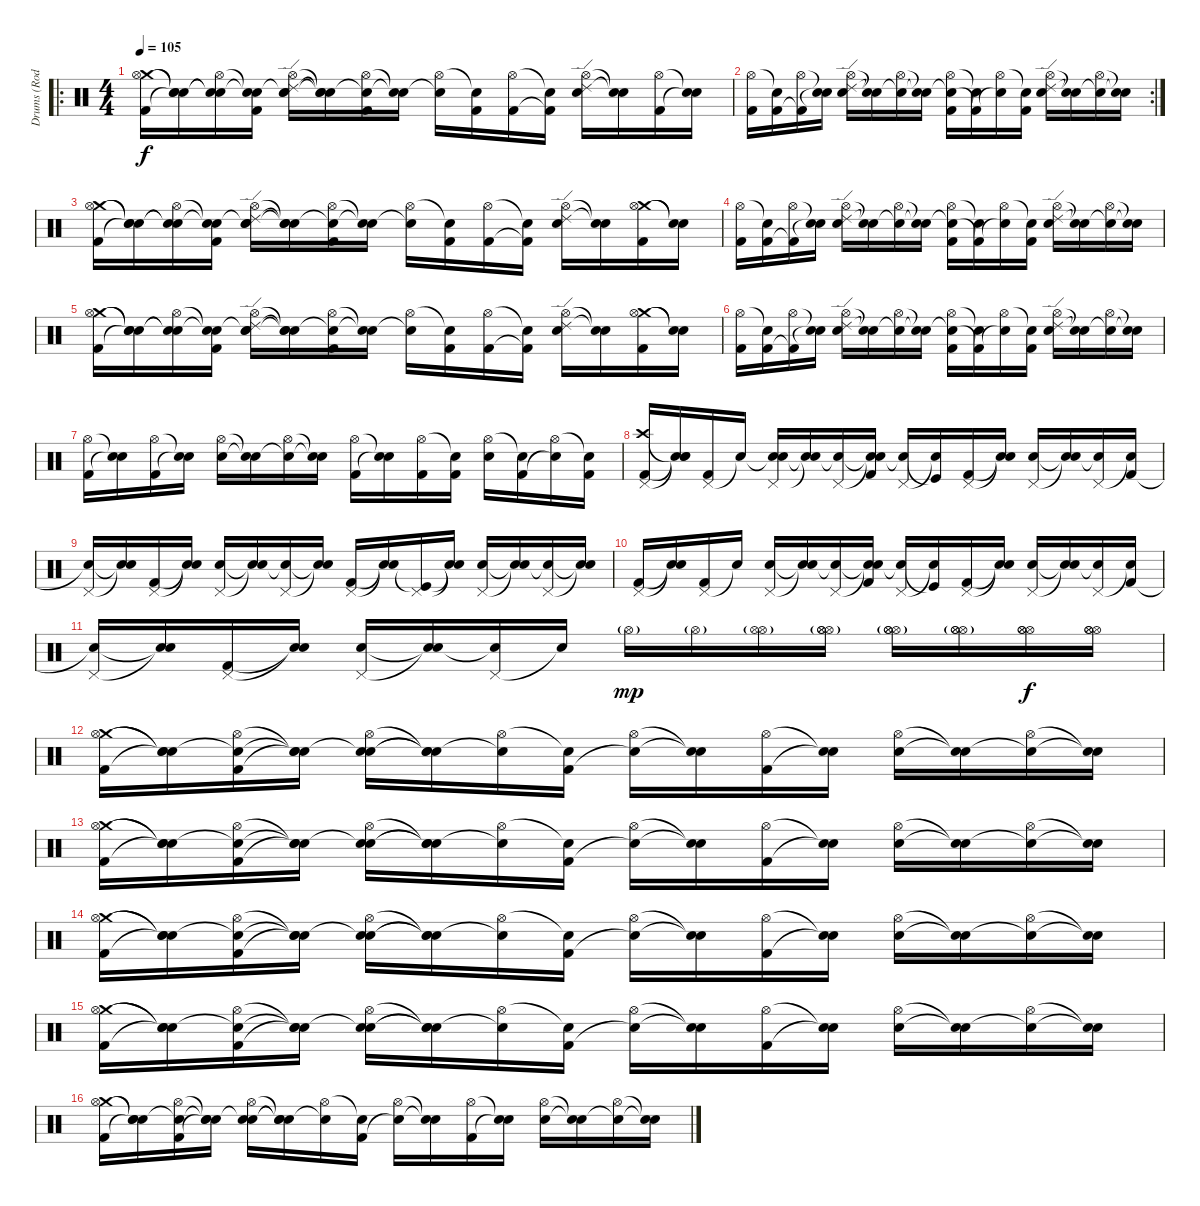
\track ("Drums (Rod Bourdon)" "Drums (Rod") {instrument percussion}
\staff {score}
\articulation defaults
\ro
\ts (4 4)
\tempo 105
\clef neutral
\ks c
("Crash medium (hit)" "Hi-Hat (open)" "Kick (hit) 2").16{dy f} ("Snare (hit)"{t} "Snare (hit)"{t} "Snare (hit)"{t}).16 ("Snare (hit)"{t} "Hi-Hat (open)" "Snare (hit)"{t}).16 ("Snare (hit)"{t} "Snare (hit)"{t} "Kick (hit) 2").16 ("Snare (hit)"{t} "Hi-Hat (open)" "Ride (edge) 2" "Electric Snare (hit)").16 ("Snare (hit)"{t} "Snare (hit)"{t} "Snare (hit)"{t}).16 ("Snare (hit)"{t} "Hi-Hat (open)" "Kick (hit) 2").16 ("Snare (hit)"{t} "Snare (hit)"{t}).16 ("Hi-Hat (open)" "Snare (hit)"{t}).16 ("Snare (hit)"{t} "Kick (hit) 2").16 ("Hi-Hat (open)" "Kick (hit) 2").16 ("Snare (hit)"{t} "Kick (hit) 2"{t}).16 ("Hi-Hat (open)" "Ride (edge) 2" "Electric Snare (hit)").16 ("Snare (hit)"{t} "Snare (hit)"{t}).16 ("Hi-Hat (open)" "Kick (hit) 2").16 ("Snare (hit)"{t} "Snare (hit)"{t}).16 |
\rc 2
("Hi-Hat (open)" "Kick (hit) 2").16 ("Snare (hit)"{t} "Kick (hit) 2").16 ("Hi-Hat (open)" "Kick (hit) 2"{t}).16 ("Snare (hit)"{t} "Snare (hit)"{t}).16 ("Hi-Hat (open)" "Ride (edge) 2" "Electric Snare (hit)").16 ("Snare (hit)"{t} "Snare (hit)"{t}).16 ("Hi-Hat (open)" "Snare (hit)"{t}).16 ("Snare (hit)"{t} "Snare (hit)"{t}).16 ("Hi-Hat (open)" "Snare (hit)"{t} "Kick (hit) 2").16 ("Snare (hit)"{t} "Kick (hit) 2"{t}).16 ("Hi-Hat (open)" "Snare (hit)"{t}).16 ("Snare (hit)"{t} "Kick (hit) 2").16 ("Hi-Hat (open)" "Ride (edge) 2" "Electric Snare (hit)").16 ("Snare (hit)"{t} "Snare (hit)"{t}).16 ("Hi-Hat (open)" "Snare (hit)"{t}).16 ("Snare (hit)"{t} "Snare (hit)"{t}).16 |
("Crash medium (hit)" "Hi-Hat (open)" "Kick (hit) 2").16 ("Snare (hit)"{t} "Snare (hit)"{t} "Snare (hit)"{t}).16 ("Snare (hit)"{t} "Hi-Hat (open)" "Snare (hit)"{t}).16 ("Snare (hit)"{t} "Snare (hit)"{t} "Kick (hit) 2").16 ("Snare (hit)"{t} "Hi-Hat (open)" "Ride (edge) 2" "Electric Snare (hit)").16 ("Snare (hit)"{t} "Snare (hit)"{t} "Snare (hit)"{t}).16 ("Snare (hit)"{t} "Hi-Hat (open)" "Kick (hit) 2").16 ("Snare (hit)"{t} "Snare (hit)"{t}).16 ("Hi-Hat (open)" "Snare (hit)"{t}).16 ("Snare (hit)"{t} "Kick (hit) 2").16 ("Hi-Hat (open)" "Kick (hit) 2").16 ("Snare (hit)"{t} "Kick (hit) 2"{t}).16 ("Hi-Hat (open)" "Ride (edge) 2" "Electric Snare (hit)").16 ("Snare (hit)"{t} "Snare (hit)"{t}).16 ("Crash medium (hit)" "Hi-Hat (open)" "Kick (hit) 2").16 ("Snare (hit)"{t} "Snare (hit)"{t}).16 |
("Hi-Hat (open)" "Kick (hit) 2").16 ("Snare (hit)"{t} "Kick (hit) 2").16 ("Hi-Hat (open)" "Kick (hit) 2"{t}).16 ("Snare (hit)"{t} "Snare (hit)"{t}).16 ("Hi-Hat (open)" "Ride (edge) 2" "Electric Snare (hit)").16 ("Snare (hit)"{t} "Snare (hit)"{t}).16 ("Hi-Hat (open)" "Snare (hit)"{t}).16 ("Snare (hit)"{t} "Snare (hit)"{t}).16 ("Hi-Hat (open)" "Snare (hit)"{t} "Kick (hit) 2").16 ("Snare (hit)"{t} "Kick (hit) 2"{t}).16 ("Hi-Hat (open)" "Snare (hit)"{t}).16 ("Snare (hit)"{t} "Kick (hit) 2").16 ("Hi-Hat (open)" "Ride (edge) 2" "Electric Snare (hit)").16 ("Snare (hit)"{t} "Snare (hit)"{t}).16 ("Hi-Hat (open)" "Snare (hit)"{t}).16 ("Snare (hit)"{t} "Snare (hit)"{t}).16 |
("Crash medium (hit)" "Hi-Hat (open)" "Kick (hit) 2").16 ("Snare (hit)"{t} "Snare (hit)"{t} "Snare (hit)"{t}).16 ("Snare (hit)"{t} "Hi-Hat (open)" "Snare (hit)"{t}).16 ("Snare (hit)"{t} "Snare (hit)"{t} "Kick (hit) 2").16 ("Snare (hit)"{t} "Hi-Hat (open)" "Ride (edge) 2" "Electric Snare (hit)").16 ("Snare (hit)"{t} "Snare (hit)"{t} "Snare (hit)"{t}).16 ("Snare (hit)"{t} "Hi-Hat (open)" "Kick (hit) 2").16 ("Snare (hit)"{t} "Snare (hit)"{t}).16 ("Hi-Hat (open)" "Snare (hit)"{t}).16 ("Snare (hit)"{t} "Kick (hit) 2").16 ("Hi-Hat (open)" "Kick (hit) 2").16 ("Snare (hit)"{t} "Kick (hit) 2"{t}).16 ("Hi-Hat (open)" "Ride (edge) 2" "Electric Snare (hit)").16 ("Snare (hit)"{t} "Snare (hit)"{t}).16 ("Crash medium (hit)" "Hi-Hat (open)" "Kick (hit) 2").16 ("Snare (hit)"{t} "Snare (hit)"{t}).16 |
("Hi-Hat (open)" "Kick (hit) 2").16 ("Snare (hit)"{t} "Kick (hit) 2").16 ("Hi-Hat (open)" "Kick (hit) 2"{t}).16 ("Snare (hit)"{t} "Snare (hit)"{t}).16 ("Hi-Hat (open)" "Ride (edge) 2" "Electric Snare (hit)").16 ("Snare (hit)"{t} "Snare (hit)"{t}).16 ("Hi-Hat (open)" "Snare (hit)"{t}).16 ("Snare (hit)"{t} "Snare (hit)"{t}).16 ("Hi-Hat (open)" "Snare (hit)"{t} "Kick (hit) 2").16 ("Snare (hit)"{t} "Kick (hit) 2"{t}).16 ("Hi-Hat (open)" "Snare (hit)"{t}).16 ("Snare (hit)"{t} "Kick (hit) 2").16 ("Hi-Hat (open)" "Ride (edge) 2" "Electric Snare (hit)").16 ("Snare (hit)"{t} "Snare (hit)"{t}).16 ("Hi-Hat (open)" "Snare (hit)"{t}).16 ("Snare (hit)"{t} "Snare (hit)"{t}).16 |
("Hi-Hat (open)" "Kick (hit) 2").16 ("Snare (hit)"{t} "Snare (hit)"{t}).16 ("Hi-Hat (open)" "Kick (hit) 2").16 ("Snare (hit)"{t} "Snare (hit)"{t}).16 ("Hi-Hat (open)" "Electric Snare (hit)").16 ("Snare (hit)"{t} "Snare (hit)"{t}).16 ("Hi-Hat (open)" "Snare (hit)"{t}).16 ("Snare (hit)"{t} "Snare (hit)"{t}).16 ("Hi-Hat (open)" "Kick (hit) 2").16 ("Snare (hit)"{t} "Snare (hit)"{t}).16 ("Hi-Hat (open)" "Kick (hit) 2").16 ("Snare (hit)"{t} "Kick (hit) 2").16 ("Hi-Hat (open)" "Electric Snare (hit)").16 ("Snare (hit)"{t} "Kick (hit) 2").16 ("Hi-Hat (open)" "Snare (hit)"{t}).16 ("Snare (hit)"{t} "Kick (hit) 2").16 |
("Crash high (hit)" "Pedal Hi-Hat (hit)" "Kick (hit) 2").16{volume 8} ("Snare (hit)"{t} "Snare (hit)"{t} "Snare (hit)"{t}).16 ("Pedal Hi-Hat (hit)" "Kick (hit) 2").16 "Snare (hit)"{t}.16 ("Snare (hit)"{t} "Pedal Hi-Hat (hit)" "Electric Snare (hit)").16 ("Snare (hit)"{t} "Snare (hit)"{t}).16 ("Pedal Hi-Hat (hit)" "Snare (hit)"{t}).16 ("Snare (hit)"{t} "Snare (hit)"{t} "Kick (hit) 2").16 ("Pedal Hi-Hat (hit)" "Snare (hit)"{t}).16 ("Snare (hit)"{t} "Kick (hit)"{t}).16 ("Pedal Hi-Hat (hit)" "Kick (hit) 2").16 ("Snare (hit)"{t} "Snare (hit)"{t}).16 ("Pedal Hi-Hat (hit)" "Electric Snare (hit)").16 ("Snare (hit)"{t} "Snare (hit)"{t}).16 ("Pedal Hi-Hat (hit)" "Snare (hit)"{t}).16 ("Snare (hit)"{t} "Kick (hit) 2").16 |
("Pedal Hi-Hat (hit)" "Snare (hit)"{t}).16 ("Snare (hit)"{t} "Snare (hit)"{t}).16 ("Pedal Hi-Hat (hit)" "Kick (hit) 2").16 ("Snare (hit)"{t} "Snare (hit)"{t}).16 ("Pedal Hi-Hat (hit)" "Electric Snare (hit)").16 ("Snare (hit)"{t} "Snare (hit)"{t}).16 ("Pedal Hi-Hat (hit)" "Snare (hit)"{t}).16 ("Snare (hit)"{t} "Snare (hit)"{t}).16 ("Pedal Hi-Hat (hit)" "Kick (hit) 2").16 ("Snare (hit)"{t} "Snare (hit)"{t}).16 ("Pedal Hi-Hat (hit)" "Kick (hit)"{t}).16 ("Snare (hit)"{t} "Snare (hit)"{t}).16 ("Pedal Hi-Hat (hit)" "Electric Snare (hit)").16 ("Snare (hit)"{t} "Snare (hit)"{t}).16 ("Pedal Hi-Hat (hit)" "Snare (hit)"{t}).16 ("Snare (hit)"{t} "Snare (hit)"{t}).16 |
("Pedal Hi-Hat (hit)" "Kick (hit) 2").16{volume 8} ("Snare (hit)"{t} "Snare (hit)"{t}).16 ("Pedal Hi-Hat (hit)" "Kick (hit) 2").16 "Snare (hit)"{t}.16 ("Pedal Hi-Hat (hit)" "Electric Snare (hit)").16 ("Snare (hit)"{t} "Snare (hit)"{t}).16 ("Pedal Hi-Hat (hit)" "Snare (hit)"{t}).16 ("Snare (hit)"{t} "Snare (hit)"{t} "Kick (hit) 2").16 ("Pedal Hi-Hat (hit)" "Snare (hit)"{t}).16 ("Snare (hit)"{t} "Kick (hit)"{t}).16 ("Pedal Hi-Hat (hit)" "Kick (hit) 2").16 ("Snare (hit)"{t} "Snare (hit)"{t}).16 ("Pedal Hi-Hat (hit)" "Electric Snare (hit)").16 ("Snare (hit)"{t} "Snare (hit)"{t}).16 ("Pedal Hi-Hat (hit)" "Snare (hit)"{t}).16 ("Snare (hit)"{t} "Kick (hit) 2").16 |
("Pedal Hi-Hat (hit)" "Snare (hit)"{t}).16 ("Snare (hit)"{t} "Snare (hit)"{t}).16 ("Pedal Hi-Hat (hit)" "Kick (hit) 2").16 ("Snare (hit)"{t} "Snare (hit)"{t}).16 ("Pedal Hi-Hat (hit)" "Electric Snare (hit)").16 ("Snare (hit)"{t} "Snare (hit)"{t}).16 ("Pedal Hi-Hat (hit)" "Snare (hit)"{t}).16 "Snare (hit)"{t}.16 "Hi-Hat (open)"{g}.16{dy mp} "Hi-Hat (open)"{g}.16 ("Hi-Hat (open)"{g} "Hi-Hat (open)"{g}).16 ("Hi-Hat (open)" "Hi-Hat (open)"{g} "Hi-Hat (open)"{g}).16 ("Hi-Hat (open)" "Hi-Hat (open)" "Hi-Hat (open)"{g}).16 ("Hi-Hat (open)" "Hi-Hat (open)" "Hi-Hat (open)"{g}).16 ("Hi-Hat (open)" "Hi-Hat (open)" "Hi-Hat (open)").16{dy f} ("Hi-Hat (open)" "Hi-Hat (open)" "Hi-Hat (open)").16 |
("Crash medium (hit)" "Hi-Hat (open)" "Kick (hit) 2").16 ("Snare (hit)"{t} "Snare (hit)"{t} "Snare (hit)"{t}).16 ("Snare (hit)"{t} "Hi-Hat (open)" "Kick (hit) 2").16 ("Snare (hit)"{t} "Snare (hit)"{t} "Snare (hit)"{t}).16 ("Snare (hit)"{t} "Hi-Hat (open)" "Electric Snare (hit)").16 ("Snare (hit)"{t} "Snare (hit)"{t} "Snare (hit)"{t}).16 ("Hi-Hat (open)" "Snare (hit)"{t}).16 ("Snare (hit)"{t} "Kick (hit) 2").16 ("Hi-Hat (open)" "Snare (hit)"{t}).16 ("Snare (hit)"{t} "Snare (hit)"{t}).16 ("Hi-Hat (open)" "Kick (hit) 2").16 ("Snare (hit)"{t} "Snare (hit)"{t}).16 ("Hi-Hat (open)" "Electric Snare (hit)").16 ("Snare (hit)"{t} "Snare (hit)"{t}).16 ("Hi-Hat (open)" "Snare (hit)"{t}).16 ("Snare (hit)"{t} "Snare (hit)"{t}).16 |
("Crash medium (hit)" "Hi-Hat (open)" "Kick (hit) 2").16 ("Snare (hit)"{t} "Snare (hit)"{t} "Snare (hit)"{t}).16 ("Snare (hit)"{t} "Hi-Hat (open)" "Kick (hit) 2").16 ("Snare (hit)"{t} "Snare (hit)"{t} "Snare (hit)"{t}).16 ("Snare (hit)"{t} "Hi-Hat (open)" "Electric Snare (hit)").16 ("Snare (hit)"{t} "Snare (hit)"{t} "Snare (hit)"{t}).16 ("Hi-Hat (open)" "Snare (hit)"{t}).16 ("Snare (hit)"{t} "Kick (hit) 2").16 ("Hi-Hat (open)" "Snare (hit)"{t}).16 ("Snare (hit)"{t} "Snare (hit)"{t}).16 ("Hi-Hat (open)" "Kick (hit) 2").16 ("Snare (hit)"{t} "Snare (hit)"{t}).16 ("Hi-Hat (open)" "Electric Snare (hit)").16 ("Snare (hit)"{t} "Snare (hit)"{t}).16 ("Hi-Hat (open)" "Snare (hit)"{t}).16 ("Snare (hit)"{t} "Snare (hit)"{t}).16 |
("Crash medium (hit)" "Hi-Hat (open)" "Kick (hit) 2").16 ("Snare (hit)"{t} "Snare (hit)"{t} "Snare (hit)"{t}).16 ("Snare (hit)"{t} "Hi-Hat (open)" "Kick (hit) 2").16 ("Snare (hit)"{t} "Snare (hit)"{t} "Snare (hit)"{t}).16 ("Snare (hit)"{t} "Hi-Hat (open)" "Electric Snare (hit)").16 ("Snare (hit)"{t} "Snare (hit)"{t} "Snare (hit)"{t}).16 ("Hi-Hat (open)" "Snare (hit)"{t}).16 ("Snare (hit)"{t} "Kick (hit) 2").16 ("Hi-Hat (open)" "Snare (hit)"{t}).16 ("Snare (hit)"{t} "Snare (hit)"{t}).16 ("Hi-Hat (open)" "Kick (hit) 2").16 ("Snare (hit)"{t} "Snare (hit)"{t}).16 ("Hi-Hat (open)" "Electric Snare (hit)").16 ("Snare (hit)"{t} "Snare (hit)"{t}).16 ("Hi-Hat (open)" "Snare (hit)"{t}).16 ("Snare (hit)"{t} "Snare (hit)"{t}).16 |
("Crash medium (hit)" "Hi-Hat (open)" "Kick (hit) 2").16 ("Snare (hit)"{t} "Snare (hit)"{t} "Snare (hit)"{t}).16 ("Snare (hit)"{t} "Hi-Hat (open)" "Kick (hit) 2").16 ("Snare (hit)"{t} "Snare (hit)"{t} "Snare (hit)"{t}).16 ("Snare (hit)"{t} "Hi-Hat (open)" "Electric Snare (hit)").16 ("Snare (hit)"{t} "Snare (hit)"{t} "Snare (hit)"{t}).16 ("Hi-Hat (open)" "Snare (hit)"{t}).16 ("Snare (hit)"{t} "Kick (hit) 2").16 ("Hi-Hat (open)" "Snare (hit)"{t}).16 ("Snare (hit)"{t} "Snare (hit)"{t}).16 ("Hi-Hat (open)" "Kick (hit) 2").16 ("Snare (hit)"{t} "Snare (hit)"{t}).16 ("Hi-Hat (open)" "Electric Snare (hit)").16 ("Snare (hit)"{t} "Snare (hit)"{t}).16 ("Hi-Hat (open)" "Snare (hit)"{t}).16 ("Snare (hit)"{t} "Snare (hit)"{t}).16 |
("Crash medium (hit)" "Hi-Hat (open)" "Kick (hit) 2").16 ("Snare (hit)"{t} "Snare (hit)"{t} "Snare (hit)"{t}).16 ("Snare (hit)"{t} "Hi-Hat (open)" "Kick (hit) 2").16 ("Snare (hit)"{t} "Snare (hit)"{t} "Snare (hit)"{t}).16 ("Snare (hit)"{t} "Hi-Hat (open)" "Electric Snare (hit)").16 ("Snare (hit)"{t} "Snare (hit)"{t} "Snare (hit)"{t}).16 ("Hi-Hat (open)" "Snare (hit)"{t}).16 ("Snare (hit)"{t} "Kick (hit) 2").16 ("Hi-Hat (open)" "Snare (hit)"{t}).16 ("Snare (hit)"{t} "Snare (hit)"{t}).16 ("Hi-Hat (open)" "Kick (hit) 2").16 ("Snare (hit)"{t} "Snare (hit)"{t}).16 ("Hi-Hat (open)" "Electric Snare (hit)").16 ("Snare (hit)"{t} "Snare (hit)"{t}).16 ("Hi-Hat (open)" "Snare (hit)"{t}).16 ("Snare (hit)"{t} "Snare (hit)"{t}).16
